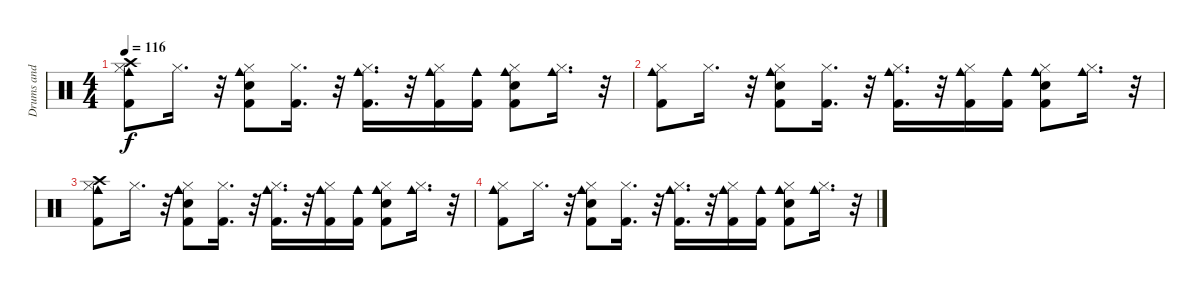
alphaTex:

\track ("Drums and Cowbell" "Drums and ") {instrument percussion}
\staff {score}
\articulation defaults
\ts (4 4)
\tempo 116
\clef neutral
\ks c
("Kick (hit) 2" "Hi-Hat (closed)" "Cowbell medium (hit)" "Crash high (hit)").8{dy f} "Hi-Hat (closed)".16{d} r.32 ("Snare (hit) 2" "Kick (hit) 2" "Hi-Hat (closed)" "Cowbell medium (hit)").8 ("Kick (hit) 2" "Hi-Hat (closed)").16{d} r.32 ("Hi-Hat (closed)" "Kick (hit) 2" "Cowbell medium (hit)").16{d} r.32 ("Kick (hit) 2" "Hi-Hat (closed)" "Cowbell medium (hit)").16 ("Kick (hit) 2" "Cowbell medium (hit)").16 ("Kick (hit) 2" "Snare (hit) 2" "Hi-Hat (closed)" "Cowbell medium (hit)").8 ("Hi-Hat (closed)" "Cowbell medium (hit)").16{d} r.32 |
("Kick (hit) 2" "Hi-Hat (closed)" "Cowbell medium (hit)").8 "Hi-Hat (closed)".16{d} r.32 ("Snare (hit) 2" "Kick (hit) 2" "Hi-Hat (closed)" "Cowbell medium (hit)").8 ("Kick (hit) 2" "Hi-Hat (closed)").16{d} r.32 ("Hi-Hat (closed)" "Kick (hit) 2" "Cowbell medium (hit)").16{d} r.32 ("Kick (hit) 2" "Hi-Hat (closed)" "Cowbell medium (hit)").16 ("Kick (hit) 2" "Cowbell medium (hit)").16 ("Kick (hit) 2" "Snare (hit) 2" "Hi-Hat (closed)" "Cowbell medium (hit)").8 ("Hi-Hat (closed)" "Cowbell medium (hit)").16{d} r.32 |
("Kick (hit) 2" "Hi-Hat (closed)" "Cowbell medium (hit)" "Crash high (hit)").8 "Hi-Hat (closed)".16{d} r.32 ("Snare (hit) 2" "Kick (hit) 2" "Hi-Hat (closed)" "Cowbell medium (hit)").8 ("Kick (hit) 2" "Hi-Hat (closed)").16{d} r.32 ("Hi-Hat (closed)" "Kick (hit) 2" "Cowbell medium (hit)").16{d} r.32 ("Kick (hit) 2" "Hi-Hat (closed)" "Cowbell medium (hit)").16 ("Kick (hit) 2" "Cowbell medium (hit)").16 ("Kick (hit) 2" "Snare (hit) 2" "Hi-Hat (closed)" "Cowbell medium (hit)").8 ("Hi-Hat (closed)" "Cowbell medium (hit)").16{d} r.32 |
("Kick (hit) 2" "Hi-Hat (closed)" "Cowbell medium (hit)").8 "Hi-Hat (closed)".16{d} r.32 ("Snare (hit) 2" "Kick (hit) 2" "Hi-Hat (closed)" "Cowbell medium (hit)").8 ("Kick (hit) 2" "Hi-Hat (closed)").16{d} r.32 ("Hi-Hat (closed)" "Kick (hit) 2" "Cowbell medium (hit)").16{d} r.32 ("Kick (hit) 2" "Hi-Hat (closed)" "Cowbell medium (hit)").16 ("Kick (hit) 2" "Cowbell medium (hit)").16 ("Kick (hit) 2" "Snare (hit) 2" "Hi-Hat (closed)" "Cowbell medium (hit)").8 ("Hi-Hat (closed)" "Cowbell medium (hit)").16{d} r.32
